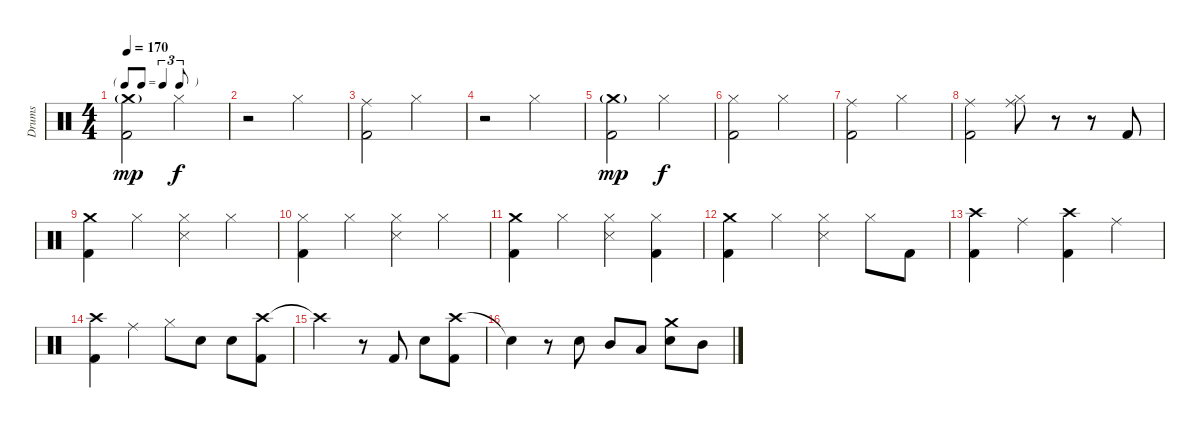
\track ("Drums" "Drums") {instrument percussion}
\staff {score}
\articulation defaults
\ts (4 4)
\tf triplet8th
\tempo 170
\clef neutral
\ks c
("Crash medium (hit)"{g} "Kick (hit) 2").2{dy mp} "Hi-Hat (closed)".2{dy f} |
r.2 "Hi-Hat (closed)".2 |
("Ride (middle)" "Kick (hit) 2").2 "Hi-Hat (closed)".2 |
r.2 "Hi-Hat (closed)".2 |
("Crash medium (hit)"{g} "Kick (hit) 2").2{dy mp} "Hi-Hat (closed)".2{dy f} |
("Hi-Hat (closed)" "Kick (hit) 2").2 "Hi-Hat (closed)".2 |
("Ride (middle)" "Kick (hit) 2").2 "Hi-Hat (closed)".2 |
("Ride (middle)" "Kick (hit) 2").2 ("Hi-Hat (closed)" "Ride (middle)").8 r.8 r.8 "Kick (hit) 2".8 |
("Crash medium (hit)" "Kick (hit) 2").4 "Hi-Hat (closed)".4 ("Hi-Hat (closed)" "Snare (side stick) 3").4 "Hi-Hat (closed)".4 |
("Hi-Hat (closed)" "Kick (hit) 2").4 "Hi-Hat (closed)".4 ("Hi-Hat (closed)" "Snare (side stick) 3").4 "Hi-Hat (closed)".4 |
("Crash medium (hit)" "Kick (hit) 2").4 "Hi-Hat (closed)".4 ("Hi-Hat (closed)" "Snare (side stick) 3").4 ("Hi-Hat (closed)" "Kick (hit) 2").4 |
("Crash medium (hit)" "Kick (hit) 2").4 "Hi-Hat (closed)".4 ("Hi-Hat (closed)" "Snare (side stick) 3").4 "Hi-Hat (closed)".8 "Kick (hit) 2".8 |
("Crash high (hit)" "Kick (hit) 2").4 "Ride (middle)".4 ("Crash high (hit)" "Kick (hit) 2").4 "Ride (middle)".4 |
("Crash high (hit)" "Kick (hit) 2").4 "Ride (middle)".4 "Hi-Hat (closed)".8 "Snare (hit) 2".8 "Snare (hit) 2".8 ("Crash high (hit)" "Kick (hit) 2").8 |
"Crash high (hit)"{t}.2 r.8 "Kick (hit) 2".8 "Snare (hit) 2".8 ("Crash high (hit)" "Kick (hit) 2").8 |
"Snare (hit)"{t}.4 r.8 "Snare (hit) 2".8 "Mid Tom (hit)".8 "Low Tom (hit)".8 ("Crash medium (hit)" "Snare (hit) 2").8 "Mid Tom (hit)".8
